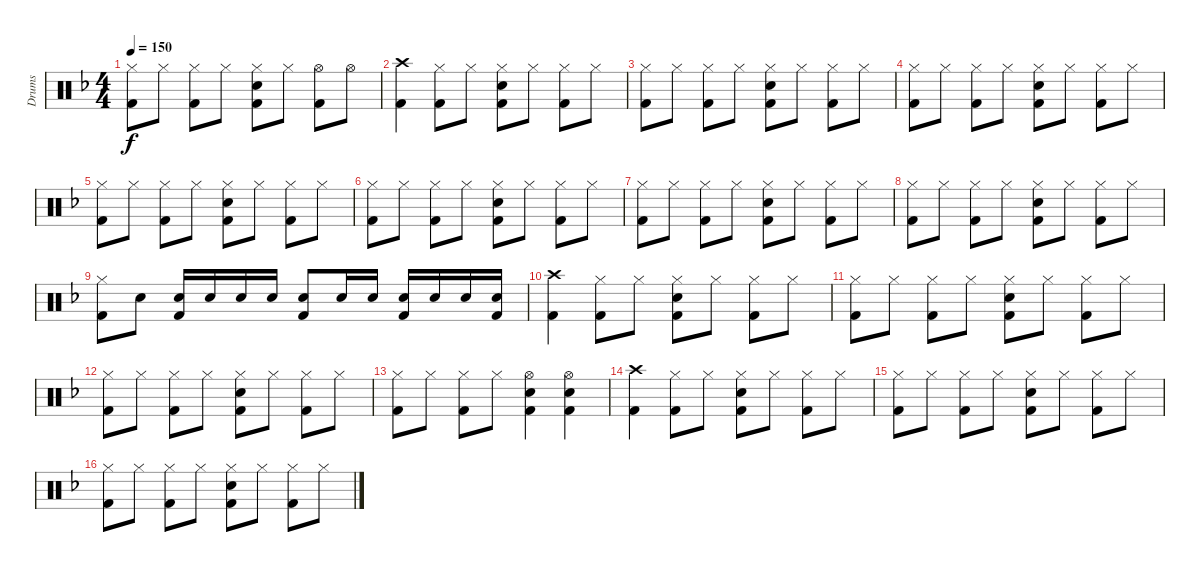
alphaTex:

\track ("Drums" "Drums") {instrument percussion}
\staff {score}
\articulation defaults
\ts (4 4)
\tempo 150
\clef neutral
\ks f
("Hi-Hat (closed)" "Kick (hit) 2").8{dy f} "Hi-Hat (closed)".8 ("Hi-Hat (closed)" "Kick (hit) 2").8 "Hi-Hat (closed)".8 ("Hi-Hat (closed)" "Electric Snare (hit)" "Kick (hit) 2").8 "Hi-Hat (closed)".8 ("Hi-Hat (open)" "Kick (hit) 2").8 "Hi-Hat (open)".8 |
("Crash high (hit)" "Kick (hit) 2").4 ("Hi-Hat (closed)" "Kick (hit) 2").8 "Hi-Hat (closed)".8 ("Hi-Hat (closed)" "Electric Snare (hit)" "Kick (hit) 2").8 "Hi-Hat (closed)".8 ("Hi-Hat (closed)" "Kick (hit) 2").8 "Hi-Hat (closed)".8 |
("Hi-Hat (closed)" "Kick (hit) 2").8 "Hi-Hat (closed)".8 ("Hi-Hat (closed)" "Kick (hit) 2").8 "Hi-Hat (closed)".8 ("Hi-Hat (closed)" "Electric Snare (hit)" "Kick (hit) 2").8 "Hi-Hat (closed)".8 ("Hi-Hat (closed)" "Kick (hit) 2").8 "Hi-Hat (closed)".8 |
("Hi-Hat (closed)" "Kick (hit) 2").8 "Hi-Hat (closed)".8 ("Hi-Hat (closed)" "Kick (hit) 2").8 "Hi-Hat (closed)".8 ("Hi-Hat (closed)" "Electric Snare (hit)" "Kick (hit) 2").8 "Hi-Hat (closed)".8 ("Hi-Hat (closed)" "Kick (hit) 2").8 "Hi-Hat (closed)".8 |
("Hi-Hat (closed)" "Kick (hit) 2").8 "Hi-Hat (closed)".8 ("Hi-Hat (closed)" "Kick (hit) 2").8 "Hi-Hat (closed)".8 ("Hi-Hat (closed)" "Electric Snare (hit)" "Kick (hit) 2").8 "Hi-Hat (closed)".8 ("Hi-Hat (closed)" "Kick (hit) 2").8 "Hi-Hat (closed)".8 |
("Hi-Hat (closed)" "Kick (hit) 2").8 "Hi-Hat (closed)".8 ("Hi-Hat (closed)" "Kick (hit) 2").8 "Hi-Hat (closed)".8 ("Hi-Hat (closed)" "Electric Snare (hit)" "Kick (hit) 2").8 "Hi-Hat (closed)".8 ("Hi-Hat (closed)" "Kick (hit) 2").8 "Hi-Hat (closed)".8 |
("Hi-Hat (closed)" "Kick (hit) 2").8 "Hi-Hat (closed)".8 ("Hi-Hat (closed)" "Kick (hit) 2").8 "Hi-Hat (closed)".8 ("Hi-Hat (closed)" "Electric Snare (hit)" "Kick (hit) 2").8 "Hi-Hat (closed)".8 ("Hi-Hat (closed)" "Kick (hit) 2").8 "Hi-Hat (closed)".8 |
("Hi-Hat (closed)" "Kick (hit) 2").8 "Hi-Hat (closed)".8 ("Hi-Hat (closed)" "Kick (hit) 2").8 "Hi-Hat (closed)".8 ("Hi-Hat (closed)" "Electric Snare (hit)" "Kick (hit) 2").8 "Hi-Hat (closed)".8 ("Hi-Hat (closed)" "Kick (hit) 2").8 "Hi-Hat (closed)".8 |
("Hi-Hat (closed)" "Kick (hit) 2").8 "Electric Snare (hit)".8 ("Electric Snare (hit)" "Kick (hit) 2").16 "Electric Snare (hit)".16 "Electric Snare (hit)".16 "Electric Snare (hit)".16 ("Electric Snare (hit)" "Kick (hit) 2").8 "Electric Snare (hit)".16 "Electric Snare (hit)".16 ("Electric Snare (hit)" "Kick (hit) 2").16 "Electric Snare (hit)".16 "Electric Snare (hit)".16 ("Electric Snare (hit)" "Kick (hit) 2").16 |
("Crash high (hit)" "Kick (hit) 2").4 ("Hi-Hat (closed)" "Kick (hit) 2").8 "Hi-Hat (closed)".8 ("Hi-Hat (closed)" "Electric Snare (hit)" "Kick (hit) 2").8 "Hi-Hat (closed)".8 ("Hi-Hat (closed)" "Kick (hit) 2").8 "Hi-Hat (closed)".8 |
("Hi-Hat (closed)" "Kick (hit) 2").8 "Hi-Hat (closed)".8 ("Hi-Hat (closed)" "Kick (hit) 2").8 "Hi-Hat (closed)".8 ("Hi-Hat (closed)" "Electric Snare (hit)" "Kick (hit) 2").8 "Hi-Hat (closed)".8 ("Hi-Hat (closed)" "Kick (hit) 2").8 "Hi-Hat (closed)".8 |
("Hi-Hat (closed)" "Kick (hit) 2").8 "Hi-Hat (closed)".8 ("Hi-Hat (closed)" "Kick (hit) 2").8 "Hi-Hat (closed)".8 ("Hi-Hat (closed)" "Electric Snare (hit)" "Kick (hit) 2").8 "Hi-Hat (closed)".8 ("Hi-Hat (closed)" "Kick (hit) 2").8 "Hi-Hat (closed)".8 |
("Hi-Hat (closed)" "Kick (hit) 2").8 "Hi-Hat (closed)".8 ("Hi-Hat (closed)" "Kick (hit) 2").8 "Hi-Hat (closed)".8 ("Hi-Hat (open)" "Electric Snare (hit)" "Kick (hit) 2").4 ("Hi-Hat (open)" "Electric Snare (hit)" "Kick (hit) 2").4 |
("Crash high (hit)" "Kick (hit) 2").4 ("Hi-Hat (closed)" "Kick (hit) 2").8 "Hi-Hat (closed)".8 ("Hi-Hat (closed)" "Electric Snare (hit)" "Kick (hit) 2").8 "Hi-Hat (closed)".8 ("Hi-Hat (closed)" "Kick (hit) 2").8 "Hi-Hat (closed)".8 |
("Hi-Hat (closed)" "Kick (hit) 2").8 "Hi-Hat (closed)".8 ("Hi-Hat (closed)" "Kick (hit) 2").8 "Hi-Hat (closed)".8 ("Hi-Hat (closed)" "Electric Snare (hit)" "Kick (hit) 2").8 "Hi-Hat (closed)".8 ("Hi-Hat (closed)" "Kick (hit) 2").8 "Hi-Hat (closed)".8 |
("Hi-Hat (closed)" "Kick (hit) 2").8 "Hi-Hat (closed)".8 ("Hi-Hat (closed)" "Kick (hit) 2").8 "Hi-Hat (closed)".8 ("Hi-Hat (closed)" "Electric Snare (hit)" "Kick (hit) 2").8 "Hi-Hat (closed)".8 ("Hi-Hat (closed)" "Kick (hit) 2").8 "Hi-Hat (closed)".8
